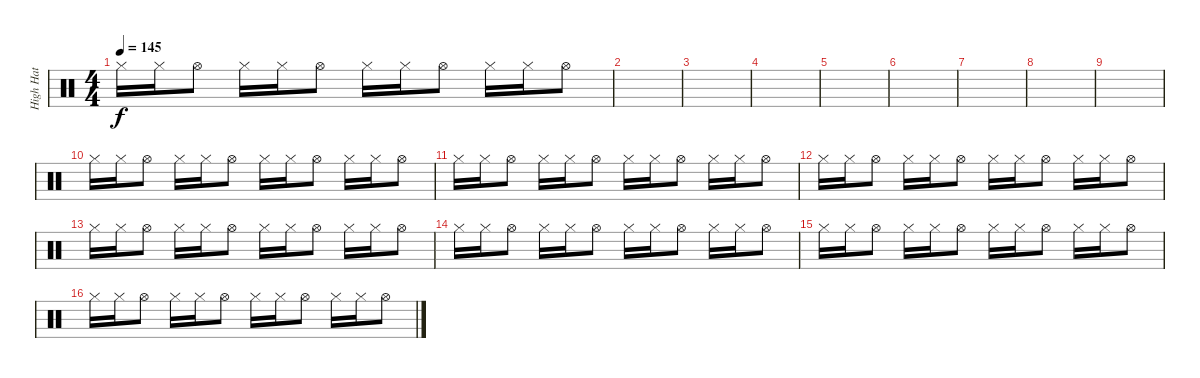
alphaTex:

\track ("High Hat" "High Hat") {instrument percussion}
\staff {score}
\articulation defaults
\ts (4 4)
\tempo 145
\clef neutral
\ks c "Hi-Hat (closed)".16{dy f} "Hi-Hat (closed)".16 "Hi-Hat (open)".8 "Hi-Hat (closed)".16 "Hi-Hat (closed)".16 "Hi-Hat (open)".8 "Hi-Hat (closed)".16 "Hi-Hat (closed)".16 "Hi-Hat (open)".8 "Hi-Hat (closed)".16 "Hi-Hat (closed)".16 "Hi-Hat (open)".8
|
|
|
|
|
|
|
|
|
"Hi-Hat (closed)".16 "Hi-Hat (closed)".16 "Hi-Hat (open)".8 "Hi-Hat (closed)".16 "Hi-Hat (closed)".16 "Hi-Hat (open)".8 "Hi-Hat (closed)".16 "Hi-Hat (closed)".16 "Hi-Hat (open)".8 "Hi-Hat (closed)".16 "Hi-Hat (closed)".16 "Hi-Hat (open)".8 |
"Hi-Hat (closed)".16 "Hi-Hat (closed)".16 "Hi-Hat (open)".8 "Hi-Hat (closed)".16 "Hi-Hat (closed)".16 "Hi-Hat (open)".8 "Hi-Hat (closed)".16 "Hi-Hat (closed)".16 "Hi-Hat (open)".8 "Hi-Hat (closed)".16 "Hi-Hat (closed)".16 "Hi-Hat (open)".8 |
"Hi-Hat (closed)".16 "Hi-Hat (closed)".16 "Hi-Hat (open)".8 "Hi-Hat (closed)".16 "Hi-Hat (closed)".16 "Hi-Hat (open)".8 "Hi-Hat (closed)".16 "Hi-Hat (closed)".16 "Hi-Hat (open)".8 "Hi-Hat (closed)".16 "Hi-Hat (closed)".16 "Hi-Hat (open)".8 |
"Hi-Hat (closed)".16 "Hi-Hat (closed)".16 "Hi-Hat (open)".8 "Hi-Hat (closed)".16 "Hi-Hat (closed)".16 "Hi-Hat (open)".8 "Hi-Hat (closed)".16 "Hi-Hat (closed)".16 "Hi-Hat (open)".8 "Hi-Hat (closed)".16 "Hi-Hat (closed)".16 "Hi-Hat (open)".8 |
"Hi-Hat (closed)".16 "Hi-Hat (closed)".16 "Hi-Hat (open)".8 "Hi-Hat (closed)".16 "Hi-Hat (closed)".16 "Hi-Hat (open)".8 "Hi-Hat (closed)".16 "Hi-Hat (closed)".16 "Hi-Hat (open)".8 "Hi-Hat (closed)".16 "Hi-Hat (closed)".16 "Hi-Hat (open)".8 |
"Hi-Hat (closed)".16 "Hi-Hat (closed)".16 "Hi-Hat (open)".8 "Hi-Hat (closed)".16 "Hi-Hat (closed)".16 "Hi-Hat (open)".8 "Hi-Hat (closed)".16 "Hi-Hat (closed)".16 "Hi-Hat (open)".8 "Hi-Hat (closed)".16 "Hi-Hat (closed)".16 "Hi-Hat (open)".8 |
"Hi-Hat (closed)".16 "Hi-Hat (closed)".16 "Hi-Hat (open)".8 "Hi-Hat (closed)".16 "Hi-Hat (closed)".16 "Hi-Hat (open)".8 "Hi-Hat (closed)".16 "Hi-Hat (closed)".16 "Hi-Hat (open)".8 "Hi-Hat (closed)".16 "Hi-Hat (closed)".16 "Hi-Hat (open)".8
